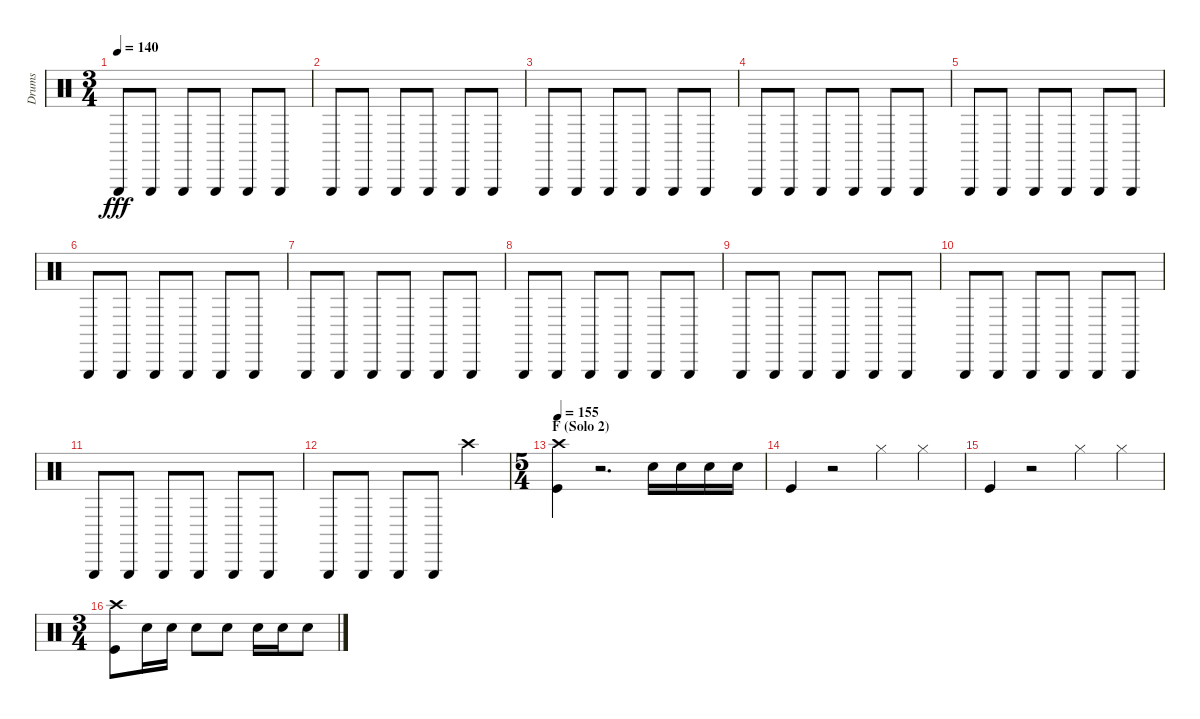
\track ("Drums" "Drums") {instrument percussion}
\staff {score}
\articulation defaults
\ts (3 4)
\tempo 140
\clef neutral
\ks c "Triangle (hit)".8{dy fff} "Triangle (hit)".8 "Triangle (hit)".8 "Triangle (hit)".8 "Triangle (hit)".8 "Triangle (hit)".8
|
"Triangle (hit)".8 "Triangle (hit)".8 "Triangle (hit)".8 "Triangle (hit)".8 "Triangle (hit)".8 "Triangle (hit)".8 |
"Triangle (hit)".8 "Triangle (hit)".8 "Triangle (hit)".8 "Triangle (hit)".8 "Triangle (hit)".8 "Triangle (hit)".8 |
"Triangle (hit)".8 "Triangle (hit)".8 "Triangle (hit)".8 "Triangle (hit)".8 "Triangle (hit)".8 "Triangle (hit)".8 |
"Triangle (hit)".8 "Triangle (hit)".8 "Triangle (hit)".8 "Triangle (hit)".8 "Triangle (hit)".8 "Triangle (hit)".8 |
"Triangle (hit)".8 "Triangle (hit)".8 "Triangle (hit)".8 "Triangle (hit)".8 "Triangle (hit)".8 "Triangle (hit)".8 |
"Triangle (hit)".8 "Triangle (hit)".8 "Triangle (hit)".8 "Triangle (hit)".8 "Triangle (hit)".8 "Triangle (hit)".8 |
"Triangle (hit)".8 "Triangle (hit)".8 "Triangle (hit)".8 "Triangle (hit)".8 "Triangle (hit)".8 "Triangle (hit)".8 |
"Triangle (hit)".8 "Triangle (hit)".8 "Triangle (hit)".8 "Triangle (hit)".8 "Triangle (hit)".8 "Triangle (hit)".8 |
"Triangle (hit)".8 "Triangle (hit)".8 "Triangle (hit)".8 "Triangle (hit)".8 "Triangle (hit)".8 "Triangle (hit)".8 |
"Triangle (hit)".8 "Triangle (hit)".8 "Triangle (hit)".8 "Triangle (hit)".8 "Triangle (hit)".8 "Triangle (hit)".8 |
"Triangle (hit)".8 "Triangle (hit)".8 "Triangle (hit)".8 "Triangle (hit)".8 "Crash high (hit)".4 |
\ts (5 4)
\section ("" "F (Solo 2)")
\tempo 155
("Crash high (hit)" "Kick (hit)").4 r.2{d} "Snare (hit) 2".16 "Snare (hit) 2".16 "Snare (hit) 2".16 "Snare (hit) 2".16 |
"Kick (hit)".4 r.2 "Hi-Hat (closed)".4 "Hi-Hat (closed)".4 |
"Kick (hit)".4 r.2 "Hi-Hat (closed)".4 "Hi-Hat (closed)".4 |
\ts (3 4)
("Crash high (hit)" "Kick (hit)").8 "Snare (hit) 2".16 "Snare (hit) 2".16 "Snare (hit) 2".8 "Snare (hit) 2".8 "Snare (hit) 2".16 "Snare (hit) 2".16 "Snare (hit) 2".8
